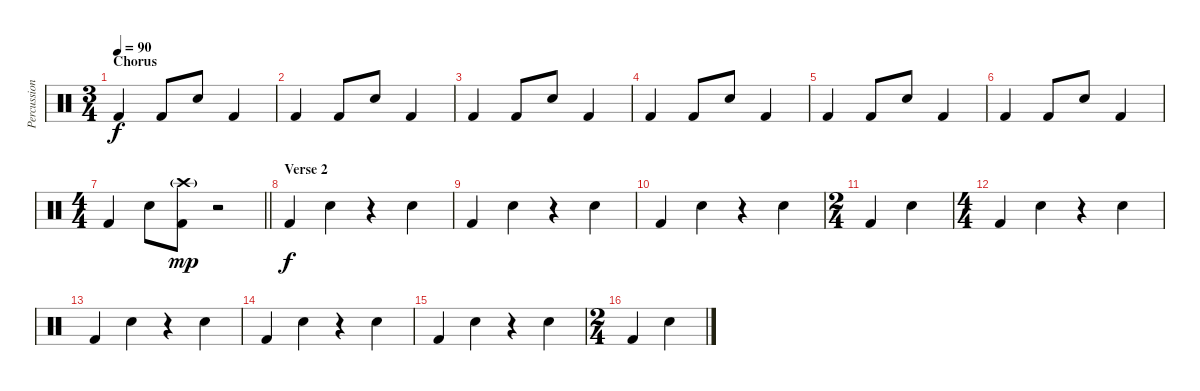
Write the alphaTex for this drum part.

\track ("Percussion" "Percussion") {instrument percussion}
\staff {score}
\articulation defaults
\ts (3 4)
\section ("" "Chorus")
\tempo 90
\clef neutral
\ks c "Kick (hit) 2".4{dy f} "Kick (hit) 2".8 "Snare (hit) 2".8 "Kick (hit) 2".4
|
"Kick (hit) 2".4 "Kick (hit) 2".8 "Snare (hit) 2".8 "Kick (hit) 2".4 |
"Kick (hit) 2".4 "Kick (hit) 2".8 "Snare (hit) 2".8 "Kick (hit) 2".4 |
"Kick (hit) 2".4 "Kick (hit) 2".8 "Snare (hit) 2".8 "Kick (hit) 2".4 |
"Kick (hit) 2".4 "Kick (hit) 2".8 "Snare (hit) 2".8 "Kick (hit) 2".4 |
"Kick (hit) 2".4 "Kick (hit) 2".8 "Snare (hit) 2".8 "Kick (hit) 2".4 |
\ts (4 4)
\barLineRight lightlight "Kick (hit) 2".4 "Snare (hit) 2".8
("Crash high (hit)"{g} "Kick (hit) 2").8{dy mp} r.2 |
\section ("" "Verse 2")
"Kick (hit) 2".4{dy f} "Snare (hit) 2".4 r.4 "Snare (hit) 2".4 |
"Kick (hit) 2".4 "Snare (hit) 2".4 r.4 "Snare (hit) 2".4 |
"Kick (hit) 2".4 "Snare (hit) 2".4 r.4 "Snare (hit) 2".4 |
\ts (2 4)
"Kick (hit) 2".4 "Snare (hit) 2".4 |
\ts (4 4)
"Kick (hit) 2".4 "Snare (hit) 2".4 r.4 "Snare (hit) 2".4 |
"Kick (hit) 2".4 "Snare (hit) 2".4 r.4 "Snare (hit) 2".4 |
"Kick (hit) 2".4 "Snare (hit) 2".4 r.4 "Snare (hit) 2".4 |
"Kick (hit) 2".4 "Snare (hit) 2".4 r.4 "Snare (hit) 2".4 |
\ts (2 4)
"Kick (hit) 2".4 "Snare (hit) 2".4
